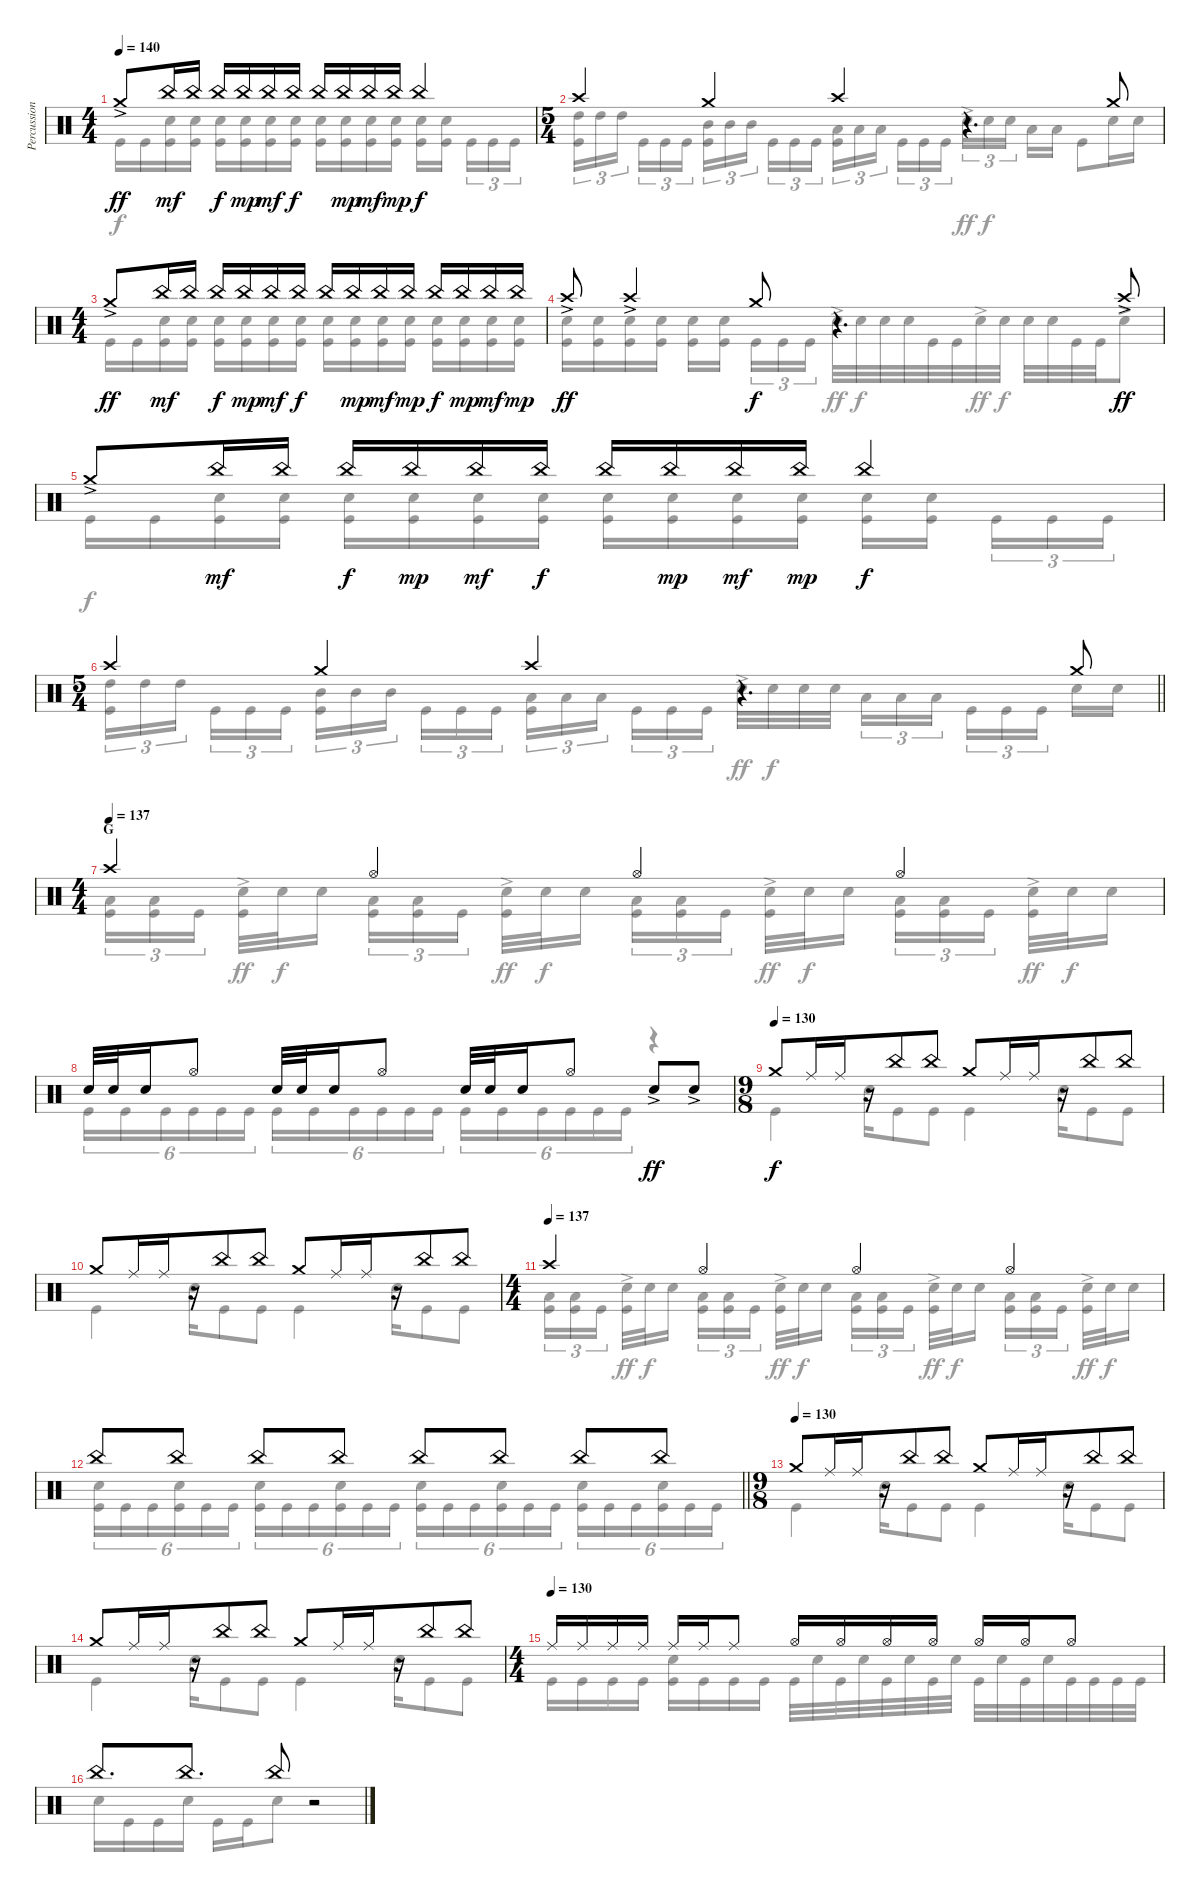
\track ("Percussions" "Percussion") {instrument percussion}
\staff {score}
\articulation defaults
\voice
\ts (4 4)
\tempo 140
\clef neutral
\ks c "Crash medium (hit)"{ac}.8{dy ff} "China (hit)".16{dy mf} "China (hit)".16 "China (hit)".16{dy f} "China (hit)".16{dy mp} "China (hit)".16{dy mf} "China (hit)".16{dy f} "China (hit)".16 "China (hit)".16{dy mp} "China (hit)".16{dy mf} "China (hit)".16{dy mp} "China (hit)".4{dy f}
|
\ts (5 4)
"Crash high (hit)".4 "Crash medium (hit)".4 "Crash high (hit)".4 r.4{d} "Crash medium (hit)".8 |
\ts (4 4)
"Crash medium (hit)"{ac}.8{dy ff} "China (hit)".16{dy mf} "China (hit)".16 "China (hit)".16{dy f} "China (hit)".16{dy mp} "China (hit)".16{dy mf} "China (hit)".16{dy f} "China (hit)".16 "China (hit)".16{dy mp} "China (hit)".16{dy mf} "China (hit)".16{dy mp} "China (hit)".16{dy f} "China (hit)".16{dy mp} "China (hit)".16{dy mf} "China (hit)".16{dy mp} |
"Crash high (hit)"{ac}.8{dy ff} "Crash high (hit)"{ac}.4 "Crash medium (hit)".8{dy f} r.4{d} "Crash high (hit)"{ac}.8{dy ff} |
"Crash medium (hit)"{ac}.8 "China (hit)".16{dy mf} "China (hit)".16 "China (hit)".16{dy f} "China (hit)".16{dy mp} "China (hit)".16{dy mf} "China (hit)".16{dy f} "China (hit)".16 "China (hit)".16{dy mp} "China (hit)".16{dy mf} "China (hit)".16{dy mp} "China (hit)".4{dy f} |
\ts (5 4)
\barLineRight lightlight "Crash high (hit)".4 "Crash medium (hit)".4 "Crash high (hit)".4
r.4{d} "Crash medium (hit)".8 |
\ts (4 4)
\section ("" "G")
\tempo (137)
"Crash high (hit)".4 "Hi-Hat (open)".4 "Hi-Hat (open)".4 "Hi-Hat (open)".4 |
"Snare (hit) 2".32 "Snare (hit) 2".32 "Snare (hit) 2".16 "Hi-Hat (open)".8 "Snare (hit) 2".32 "Snare (hit) 2".32 "Snare (hit) 2".16 "Hi-Hat (open)".8 "Snare (hit) 2".32 "Snare (hit) 2".32 "Snare (hit) 2".16 "Hi-Hat (open)".8 "Snare (hit) 2"{ac}.8{dy ff} "Snare (hit) 2"{ac}.8 |
\ts (9 8)
\tempo (130)
"Crash medium (hit)".8{dy f} "Ride (middle)".16 "Ride (middle)".16 r.16 "China (hit)".8{beam merge} "China (hit)".8{beam split} "Crash medium (hit)".8 "Ride (middle)".16{beam merge} "Ride (middle)".16 r.16 "China (hit)".8 "China (hit)".8 |
"Crash medium (hit)".8 "Ride (middle)".16 "Ride (middle)".16 r.16 "China (hit)".8{beam merge} "China (hit)".8{beam split} "Crash medium (hit)".8 "Ride (middle)".16{beam merge} "Ride (middle)".16 r.16 "China (hit)".8 "China (hit)".8 |
\ts (4 4)
\tempo (137)
"Crash high (hit)".4 "Hi-Hat (open)".4 "Hi-Hat (open)".4 "Hi-Hat (open)".4 |
\barLineRight lightlight "China (hit)".8 "China (hit)".8 "China (hit)".8 "China (hit)".8 "China (hit)".8 "China (hit)".8 "China (hit)".8 "China (hit)".8
|
\ts (9 8)
\tempo (130)
"Crash medium (hit)".8 "Ride (middle)".16 "Ride (middle)".16 r.16 "China (hit)".8{beam merge} "China (hit)".8{beam split} "Crash medium (hit)".8 "Ride (middle)".16{beam merge} "Ride (middle)".16 r.16 "China (hit)".8 "China (hit)".8 |
"Crash medium (hit)".8 "Ride (middle)".16 "Ride (middle)".16 r.16 "China (hit)".8{beam merge} "China (hit)".8{beam split} "Crash medium (hit)".8 "Ride (middle)".16{beam merge} "Ride (middle)".16 r.16 "China (hit)".8 "China (hit)".8 |
\ts (4 4)
\tempo (130)
"Ride (middle)".16 "Ride (middle)".16 "Ride (middle)".16 "Ride (middle)".16 "Ride (middle)".16 "Ride (middle)".16 "Ride (middle)".8 "Hi-Hat (open)".16 "Hi-Hat (open)".16 "Hi-Hat (open)".16 "Hi-Hat (open)".16 "Hi-Hat (open)".16 "Hi-Hat (open)".16 "Hi-Hat (open)".8 |
"China (hit)".8{d} "China (hit)".8{d} "China (hit)".8 r.2
\voice
\clef neutral
\ottava regular
\simile none
\ks c "Kick (hit)".16{dy f} "Kick (hit)".16
("Snare (hit) 2" "Kick (hit)").16 ("Snare (hit) 2" "Kick (hit)").16 ("Snare (hit) 2" "Kick (hit)").16 ("Snare (hit) 2" "Kick (hit)").16 ("Snare (hit) 2" "Kick (hit)").16 ("Snare (hit) 2" "Kick (hit)").16 ("Snare (hit) 2" "Kick (hit)").16 ("Snare (hit) 2" "Kick (hit)").16 ("Snare (hit) 2" "Kick (hit)").16 ("Snare (hit) 2" "Kick (hit)").16 ("Snare (hit) 2" "Kick (hit)").16 ("Snare (hit) 2" "Kick (hit)").16{beam splitsecondary} "Kick (hit)".16{tu (3 2)} "Kick (hit)".16{tu (3 2)} "Kick (hit)".16{tu (3 2)} |
("High Tom (hit)" "Kick (hit)").16{tu (3 2)} "High Tom (hit)".16{tu (3 2)} "High Tom (hit)".16{tu (3 2) beam splitsecondary} "Kick (hit)".16{tu (3 2)} "Kick (hit)".16{tu (3 2)} "Kick (hit)".16{tu (3 2)} ("Mid Tom (hit)" "Kick (hit)").16{tu (3 2)} "Mid Tom (hit)".16{tu (3 2)} "Mid Tom (hit)".16{tu (3 2) beam splitsecondary} "Kick (hit)".16{tu (3 2)} "Kick (hit)".16{tu (3 2)} "Kick (hit)".16{tu (3 2)} ("Low Tom (hit)" "Kick (hit)").16{tu (3 2)} "Low Tom (hit)".16{tu (3 2)} "Low Tom (hit)".16{tu (3 2) beam splitsecondary} "Kick (hit)".16{tu (3 2)} "Kick (hit)".16{tu (3 2)} "Kick (hit)".16{tu (3 2)} "Snare (hit) 2"{ac}.16{tu (3 2) dy ff} "Snare (hit) 2".16{tu (3 2) dy f} "Snare (hit) 2".16{tu (3 2) beam splitsecondary} "Low Tom (hit)".16 "Low Tom (hit)".16 "Kick (hit)".8 "Snare (hit) 2".16 "Snare (hit) 2".16 |
"Kick (hit)".16 "Kick (hit)".16 ("Snare (hit) 2" "Kick (hit)").16 ("Snare (hit) 2" "Kick (hit)").16 ("Snare (hit) 2" "Kick (hit)").16 ("Snare (hit) 2" "Kick (hit)").16 ("Snare (hit) 2" "Kick (hit)").16 ("Snare (hit) 2" "Kick (hit)").16 ("Snare (hit) 2" "Kick (hit)").16 ("Snare (hit) 2" "Kick (hit)").16 ("Snare (hit) 2" "Kick (hit)").16 ("Snare (hit) 2" "Kick (hit)").16 ("Snare (hit) 2" "Kick (hit)").16 ("Snare (hit) 2" "Kick (hit)").16 ("Snare (hit) 2" "Kick (hit)").16 ("Snare (hit) 2" "Kick (hit)").16 |
("Snare (hit) 2" "Kick (hit)").16 ("Snare (hit) 2" "Kick (hit)").16 ("Snare (hit) 2" "Kick (hit)").16 ("Snare (hit) 2" "Kick (hit)").16 ("Snare (hit) 2" "Kick (hit)").16 ("Snare (hit) 2" "Kick (hit)").16{beam splitsecondary} "Kick (hit)".16{tu (3 2)} "Kick (hit)".16{tu (3 2)} "Kick (hit)".16{tu (3 2)} "Snare (hit) 2"{ac}.32{dy ff} "Snare (hit) 2".32{dy f} "Snare (hit) 2".32 "Snare (hit) 2".32 "Kick (hit)".32 "Kick (hit)".32 "Snare (hit) 2"{ac}.32{dy ff} "Snare (hit) 2".32{dy f} "Snare (hit) 2".32 "Snare (hit) 2".32 "Kick (hit)".32 "Kick (hit)".32 "Snare (hit) 2"{ac}.8{dy ff} |
"Kick (hit)".16{dy f} "Kick (hit)".16 ("Snare (hit) 2" "Kick (hit)").16 ("Snare (hit) 2" "Kick (hit)").16 ("Snare (hit) 2" "Kick (hit)").16 ("Snare (hit) 2" "Kick (hit)").16 ("Snare (hit) 2" "Kick (hit)").16 ("Snare (hit) 2" "Kick (hit)").16 ("Snare (hit) 2" "Kick (hit)").16 ("Snare (hit) 2" "Kick (hit)").16 ("Snare (hit) 2" "Kick (hit)").16 ("Snare (hit) 2" "Kick (hit)").16 ("Snare (hit) 2" "Kick (hit)").16 ("Snare (hit) 2" "Kick (hit)").16{beam splitsecondary} "Kick (hit)".16{tu (3 2)} "Kick (hit)".16{tu (3 2)} "Kick (hit)".16{tu (3 2)} |
\barLineRight lightlight
("High Tom (hit)" "Kick (hit)").16{tu (3 2)} "High Tom (hit)".16{tu (3 2)} "High Tom (hit)".16{tu (3 2) beam splitsecondary} "Kick (hit)".16{tu (3 2)} "Kick (hit)".16{tu (3 2)} "Kick (hit)".16{tu (3 2)} ("Mid Tom (hit)" "Kick (hit)").16{tu (3 2)} "Mid Tom (hit)".16{tu (3 2)} "Mid Tom (hit)".16{tu (3 2) beam splitsecondary} "Kick (hit)".16{tu (3 2)} "Kick (hit)".16{tu (3 2)} "Kick (hit)".16{tu (3 2)} ("Low Tom (hit)" "Kick (hit)").16{tu (3 2)} "Low Tom (hit)".16{tu (3 2)} "Low Tom (hit)".16{tu (3 2) beam splitsecondary} "Kick (hit)".16{tu (3 2)} "Kick (hit)".16{tu (3 2)} "Kick (hit)".16{tu (3 2)} "Snare (hit) 2"{ac}.32{dy ff} "Snare (hit) 2".32{dy f} "Snare (hit) 2".32 "Snare (hit) 2".32{beam splitsecondary} "Low Tom (hit)".16{tu (3 2)} "Low Tom (hit)".16{tu (3 2)} "Low Tom (hit)".16{tu (3 2)} "Kick (hit)".16{tu (3 2)} "Kick (hit)".16{tu (3 2)} "Kick (hit)".16{tu (3 2) beam splitsecondary} "Snare (hit) 2".16 "Snare (hit) 2".16 |
("Low Tom (hit)" "Kick (hit)").16{tu (3 2)} ("Low Tom (hit)" "Kick (hit)").16{tu (3 2)} "Kick (hit)".16{tu (3 2) beam splitsecondary} ("Snare (hit) 2"{ac} "Kick (hit)").32{dy ff} "Snare (hit) 2".32{dy f} "Snare (hit) 2".16 ("Low Tom (hit)" "Kick (hit)").16{tu (3 2)} ("Low Tom (hit)" "Kick (hit)").16{tu (3 2)} "Kick (hit)".16{tu (3 2) beam splitsecondary} ("Snare (hit) 2"{ac} "Kick (hit)").32{dy ff} "Snare (hit) 2".32{dy f} "Snare (hit) 2".16 ("Low Tom (hit)" "Kick (hit)").16{tu (3 2)} ("Low Tom (hit)" "Kick (hit)").16{tu (3 2)} "Kick (hit)".16{tu (3 2) beam splitsecondary} ("Snare (hit) 2"{ac} "Kick (hit)").32{dy ff} "Snare (hit) 2".32{dy f} "Snare (hit) 2".16 ("Low Tom (hit)" "Kick (hit)").16{tu (3 2)} ("Low Tom (hit)" "Kick (hit)").16{tu (3 2)} "Kick (hit)".16{tu (3 2) beam splitsecondary} ("Snare (hit) 2"{ac} "Kick (hit)").32{dy ff} "Snare (hit) 2".32{dy f} "Snare (hit) 2".16 |
"Kick (hit)".16{tu (6 4)} "Kick (hit)".16{tu (6 4)} "Kick (hit)".16{tu (6 4)} "Kick (hit)".16{tu (6 4)} "Kick (hit)".16{tu (6 4)} "Kick (hit)".16{tu (6 4)} "Kick (hit)".16{tu (6 4)} "Kick (hit)".16{tu (6 4)} "Kick (hit)".16{tu (6 4)} "Kick (hit)".16{tu (6 4)} "Kick (hit)".16{tu (6 4)} "Kick (hit)".16{tu (6 4)} "Kick (hit)".16{tu (6 4)} "Kick (hit)".16{tu (6 4)} "Kick (hit)".16{tu (6 4)} "Kick (hit)".16{tu (6 4)} "Kick (hit)".16{tu (6 4)} "Kick (hit)".16{tu (6 4)} r.4 |
"Kick (hit)".4 "Snare (hit) 2".16 "Kick (hit)".8{beam merge} "Kick (hit)".8 "Kick (hit)".4 "Snare (hit) 2".16 "Kick (hit)".8 "Kick (hit)".8 |
"Kick (hit)".4 "Snare (hit) 2".16 "Kick (hit)".8{beam merge} "Kick (hit)".8 "Kick (hit)".4 "Snare (hit) 2".16 "Kick (hit)".8 "Kick (hit)".8 |
("Low Tom (hit)" "Kick (hit)").16{tu (3 2)} ("Low Tom (hit)" "Kick (hit)").16{tu (3 2)} "Kick (hit)".16{tu (3 2) beam splitsecondary} ("Snare (hit) 2"{ac} "Kick (hit)").32{dy ff} "Snare (hit) 2".32{dy f} "Snare (hit) 2".16 ("Low Tom (hit)" "Kick (hit)").16{tu (3 2)} ("Low Tom (hit)" "Kick (hit)").16{tu (3 2)} "Kick (hit)".16{tu (3 2) beam splitsecondary} ("Snare (hit) 2"{ac} "Kick (hit)").32{dy ff} "Snare (hit) 2".32{dy f} "Snare (hit) 2".16 ("Low Tom (hit)" "Kick (hit)").16{tu (3 2)} ("Low Tom (hit)" "Kick (hit)").16{tu (3 2)} "Kick (hit)".16{tu (3 2) beam splitsecondary} ("Snare (hit) 2"{ac} "Kick (hit)").32{dy ff} "Snare (hit) 2".32{dy f} "Snare (hit) 2".16 ("Low Tom (hit)" "Kick (hit)").16{tu (3 2)} ("Low Tom (hit)" "Kick (hit)").16{tu (3 2)} "Kick (hit)".16{tu (3 2) beam splitsecondary} ("Snare (hit) 2"{ac} "Kick (hit)").32{dy ff} "Snare (hit) 2".32{dy f} "Snare (hit) 2".16 |
\barLineRight lightlight
("Snare (hit) 2" "Kick (hit)").16{tu (6 4)} "Kick (hit)".16{tu (6 4)} "Kick (hit)".16{tu (6 4)} ("Snare (hit) 2" "Kick (hit)").16{tu (6 4)} "Kick (hit)".16{tu (6 4)} "Kick (hit)".16{tu (6 4)} ("Snare (hit) 2" "Kick (hit)").16{tu (6 4)} "Kick (hit)".16{tu (6 4)} "Kick (hit)".16{tu (6 4)} ("Snare (hit) 2" "Kick (hit)").16{tu (6 4)} "Kick (hit)".16{tu (6 4)} "Kick (hit)".16{tu (6 4)} ("Snare (hit) 2" "Kick (hit)").16{tu (6 4)} "Kick (hit)".16{tu (6 4)} "Kick (hit)".16{tu (6 4)} ("Snare (hit) 2" "Kick (hit)").16{tu (6 4)} "Kick (hit)".16{tu (6 4)} "Kick (hit)".16{tu (6 4)} ("Snare (hit) 2" "Kick (hit)").16{tu (6 4)} "Kick (hit)".16{tu (6 4)} "Kick (hit)".16{tu (6 4)} ("Snare (hit) 2" "Kick (hit)").16{tu (6 4)} "Kick (hit)".16{tu (6 4)} "Kick (hit)".16{tu (6 4)} |
"Kick (hit)".4 "Snare (hit) 2".16 "Kick (hit)".8{beam merge} "Kick (hit)".8 "Kick (hit)".4 "Snare (hit) 2".16 "Kick (hit)".8 "Kick (hit)".8 |
"Kick (hit)".4 "Snare (hit) 2".16 "Kick (hit)".8{beam merge} "Kick (hit)".8 "Kick (hit)".4 "Snare (hit) 2".16 "Kick (hit)".8 "Kick (hit)".8 |
"Kick (hit)".16 "Kick (hit)".16 "Kick (hit)".16 "Kick (hit)".16 ("Snare (hit) 2" "Kick (hit)").16 "Kick (hit)".16 "Kick (hit)".16 "Kick (hit)".16 "Kick (hit)".32 "Snare (hit) 2".32 "Kick (hit)".32 "Snare (hit) 2".32 "Kick (hit)".32 "Snare (hit) 2".32 "Kick (hit)".32 "Snare (hit) 2".32 "Kick (hit)".32 "Snare (hit) 2".32 "Kick (hit)".32 "Snare (hit) 2".32 "Kick (hit)".32 "Kick (hit)".32 "Kick (hit)".32 "Kick (hit)".32 |
"Snare (hit) 2".16 "Kick (hit)".16 "Kick (hit)".16 "Snare (hit) 2".16 "Kick (hit)".16 "Kick (hit)".16 "Snare (hit) 2".8 r.2
